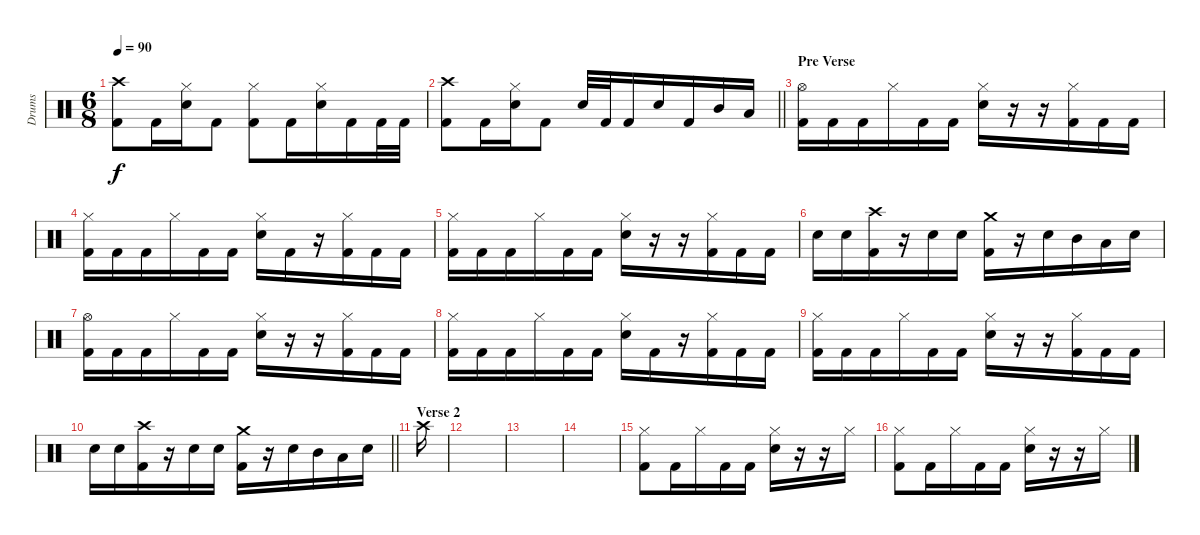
\track ("Drums" "Drums") {instrument percussion}
\staff {score}
\articulation defaults
\ts (6 8)
\tempo 90
\clef neutral
\ks c
("Crash high (hit)" "Kick (hit) 2").8{dy f} "Kick (hit) 2".16 ("Hi-Hat (closed)" "Snare (hit) 2").16 "Kick (hit) 2".8 ("Hi-Hat (closed)" "Kick (hit) 2").8 "Kick (hit) 2".16 ("Hi-Hat (closed)" "Snare (hit) 2").16 "Kick (hit) 2".16 "Kick (hit) 2".32 "Kick (hit) 2".32 |
\barLineRight lightlight
("Crash high (hit)" "Kick (hit) 2").8 "Kick (hit) 2".16 ("Hi-Hat (closed)" "Snare (hit) 2").16 "Kick (hit) 2".8 "Snare (hit) 2".32 "Kick (hit) 2".32 "Kick (hit) 2".16 "Snare (hit) 2".16 "Kick (hit) 2".16 "Mid Tom (hit)".16 "Low Tom (hit)".16 |
\section ("" "Pre Verse")
("Hi-Hat (open)" "Kick (hit) 2").16 "Kick (hit) 2".16 "Kick (hit) 2".16 "Hi-Hat (closed)".16 "Kick (hit) 2".16 "Kick (hit) 2".16 ("Hi-Hat (closed)" "Snare (hit) 2").16 r.16 r.16 ("Hi-Hat (closed)" "Kick (hit) 2").16 "Kick (hit) 2".16 "Kick (hit) 2".16 |
("Hi-Hat (closed)" "Kick (hit) 2").16 "Kick (hit) 2".16 "Kick (hit) 2".16 "Hi-Hat (closed)".16 "Kick (hit) 2".16 "Kick (hit) 2".16 ("Hi-Hat (closed)" "Snare (hit) 2").16 "Kick (hit) 2".16 r.16 ("Hi-Hat (closed)" "Kick (hit) 2").16 "Kick (hit) 2".16 "Kick (hit) 2".16 |
("Hi-Hat (closed)" "Kick (hit) 2").16 "Kick (hit) 2".16 "Kick (hit) 2".16 "Hi-Hat (closed)".16 "Kick (hit) 2".16 "Kick (hit) 2".16 ("Hi-Hat (closed)" "Snare (hit) 2").16 r.16 r.16 ("Hi-Hat (closed)" "Kick (hit) 2").16 "Kick (hit) 2".16 "Kick (hit) 2".16 |
"Snare (hit) 2".16 "Snare (hit) 2".16 ("Crash high (hit)" "Kick (hit) 2").16 r.16 "Snare (hit) 2".16 "Snare (hit) 2".16 ("Crash medium (hit)" "Kick (hit) 2").16 r.16 "Snare (hit) 2".16 "Mid Tom (hit)".16 "Low Tom (hit)".16 "Snare (hit) 2".16 |
("Hi-Hat (open)" "Kick (hit) 2").16 "Kick (hit) 2".16 "Kick (hit) 2".16 "Hi-Hat (closed)".16 "Kick (hit) 2".16 "Kick (hit) 2".16 ("Hi-Hat (closed)" "Snare (hit) 2").16 r.16 r.16 ("Hi-Hat (closed)" "Kick (hit) 2").16 "Kick (hit) 2".16 "Kick (hit) 2".16 |
("Hi-Hat (closed)" "Kick (hit) 2").16 "Kick (hit) 2".16 "Kick (hit) 2".16 "Hi-Hat (closed)".16 "Kick (hit) 2".16 "Kick (hit) 2".16 ("Hi-Hat (closed)" "Snare (hit) 2").16 "Kick (hit) 2".16 r.16 ("Hi-Hat (closed)" "Kick (hit) 2").16 "Kick (hit) 2".16 "Kick (hit) 2".16 |
("Hi-Hat (closed)" "Kick (hit) 2").16 "Kick (hit) 2".16 "Kick (hit) 2".16 "Hi-Hat (closed)".16 "Kick (hit) 2".16 "Kick (hit) 2".16 ("Hi-Hat (closed)" "Snare (hit) 2").16 r.16 r.16 ("Hi-Hat (closed)" "Kick (hit) 2").16 "Kick (hit) 2".16 "Kick (hit) 2".16 |
\barLineRight lightlight "Snare (hit) 2".16 "Snare (hit) 2".16
("Crash high (hit)" "Kick (hit) 2").16 r.16 "Snare (hit) 2".16 "Snare (hit) 2".16 ("Crash medium (hit)" "Kick (hit) 2").16 r.16 "Snare (hit) 2".16 "Mid Tom (hit)".16 "Low Tom (hit)".16 "Snare (hit) 2".16 |
\section ("" "Verse 2")
"Crash high (hit)".16 |
|
|
|
("Hi-Hat (closed)" "Kick (hit) 2").8 "Kick (hit) 2".16 "Hi-Hat (closed)".16 "Kick (hit) 2".16 "Kick (hit) 2".16 ("Hi-Hat (closed)" "Snare (hit) 2").16 r.16 r.16 "Hi-Hat (closed)".16 |
("Hi-Hat (closed)" "Kick (hit) 2").8 "Kick (hit) 2".16 "Hi-Hat (closed)".16 "Kick (hit) 2".16 "Kick (hit) 2".16 ("Hi-Hat (closed)" "Snare (hit) 2").16 r.16 r.16 "Hi-Hat (closed)".16
